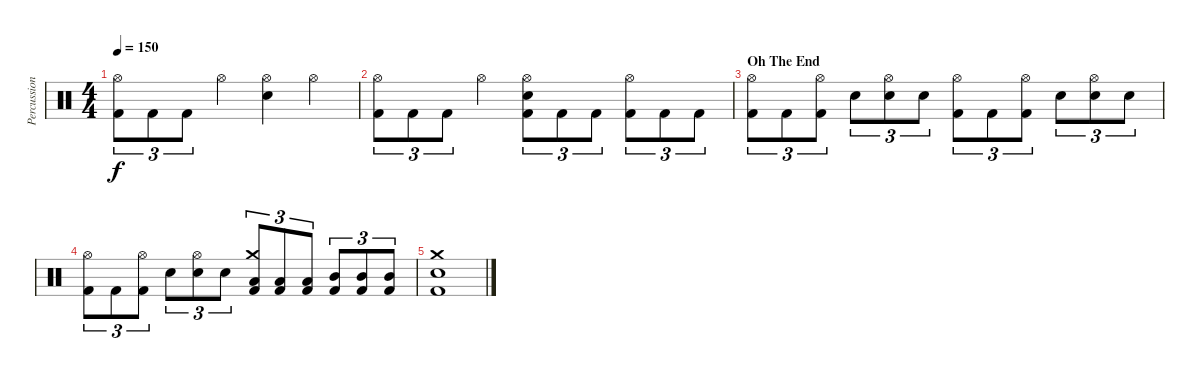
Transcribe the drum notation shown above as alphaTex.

\track ("Percussion" "Percussion") {instrument percussion}
\staff {score}
\articulation defaults
\ts (4 4)
\tempo 150
\clef neutral
\ks c
("Hi-Hat (open)" "Kick (hit) 2").8{tu (3 2) dy f} "Kick (hit) 2".8{tu (3 2)} "Kick (hit) 2".8{tu (3 2)} "Hi-Hat (open)".4 ("Hi-Hat (open)" "Electric Snare (hit)").4 "Hi-Hat (open)".4 |
("Hi-Hat (open)" "Kick (hit) 2").8{tu (3 2)} "Kick (hit) 2".8{tu (3 2)} "Kick (hit) 2".8{tu (3 2)} "Hi-Hat (open)".4 ("Hi-Hat (open)" "Electric Snare (hit)" "Kick (hit) 2").8{tu (3 2)} "Kick (hit) 2".8{tu (3 2)} "Kick (hit) 2".8{tu (3 2)} ("Hi-Hat (open)" "Kick (hit) 2").8{tu (3 2)} "Kick (hit) 2".8{tu (3 2)} "Kick (hit) 2".8{tu (3 2)} |
\section ("" "Oh The End")
("Hi-Hat (open)" "Kick (hit) 2").8{tu (3 2)} "Kick (hit) 2".8{tu (3 2)} ("Hi-Hat (open)" "Kick (hit) 2").8{tu (3 2)} "Electric Snare (hit)".8{tu (3 2)} ("Hi-Hat (open)" "Electric Snare (hit)").8{tu (3 2)} "Electric Snare (hit)".8{tu (3 2)} ("Hi-Hat (open)" "Kick (hit) 2").8{tu (3 2)} "Kick (hit) 2".8{tu (3 2)} ("Hi-Hat (open)" "Kick (hit) 2").8{tu (3 2)} "Electric Snare (hit)".8{tu (3 2)} ("Hi-Hat (open)" "Electric Snare (hit)").8{tu (3 2)} "Electric Snare (hit)".8{tu (3 2)} |
("Hi-Hat (open)" "Kick (hit) 2").8{tu (3 2)} "Kick (hit) 2".8{tu (3 2)} ("Hi-Hat (open)" "Kick (hit) 2").8{tu (3 2)} "Electric Snare (hit)".8{tu (3 2)} ("Hi-Hat (open)" "Electric Snare (hit)").8{tu (3 2)} "Electric Snare (hit)".8{tu (3 2)} ("Crash medium (hit)" "Low Tom (hit)" "Kick (hit) 2").8{tu (3 2)} ("Low Tom (hit)" "Kick (hit) 2").8{tu (3 2)} ("Low Tom (hit)" "Kick (hit) 2").8{tu (3 2)} ("Mid Tom (hit)" "Kick (hit) 2").8{tu (3 2)} ("Mid Tom (hit)" "Kick (hit) 2").8{tu (3 2)} ("Mid Tom (hit)" "Kick (hit) 2").8{tu (3 2)} |
("Crash medium (hit)" "Electric Snare (hit)" "Kick (hit) 2").1
